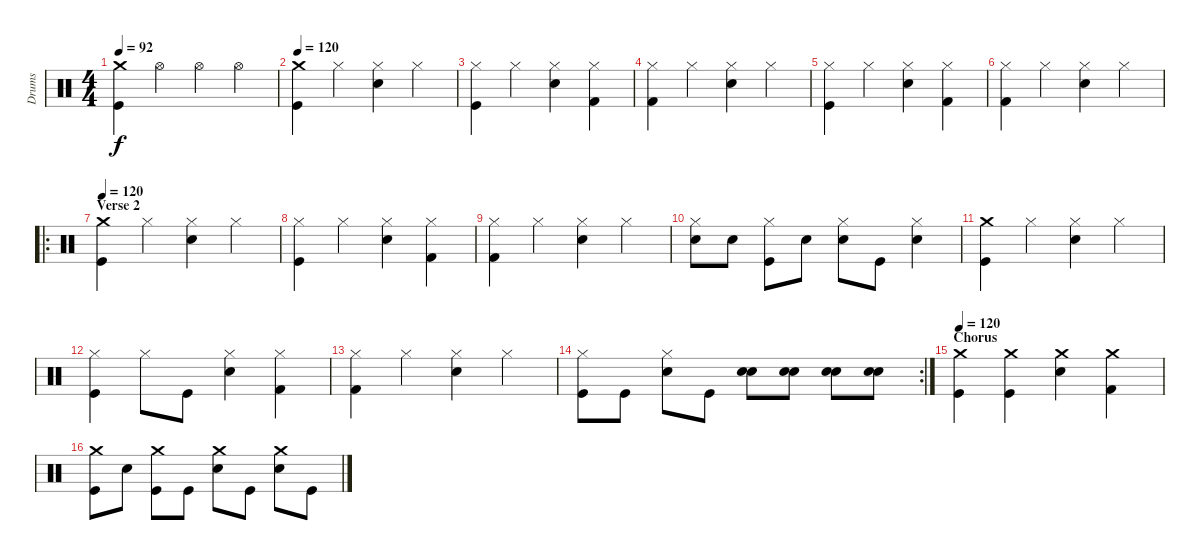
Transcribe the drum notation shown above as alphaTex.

\track ("Drums" "Drums") {instrument percussion}
\staff {score}
\articulation defaults
\ts (4 4)
\tempo 92
\clef neutral
\ks c
("Crash medium (hit)" "Kick (hit)").4{dy f} "Hi-Hat (open)".4 "Hi-Hat (open)".4 "Hi-Hat (open)".4 |
\tempo 120
("Crash medium (hit)" "Kick (hit)").4 "Hi-Hat (closed)".4 ("Hi-Hat (closed)" "Electric Snare (hit)").4 "Hi-Hat (closed)".4 |
("Hi-Hat (closed)" "Kick (hit)").4 "Hi-Hat (closed)".4 ("Hi-Hat (closed)" "Electric Snare (hit)").4 ("Hi-Hat (closed)" "Kick (hit) 2").4 |
("Hi-Hat (closed)" "Kick (hit) 2").4 "Hi-Hat (closed)".4 ("Hi-Hat (closed)" "Electric Snare (hit)").4 "Hi-Hat (closed)".4 |
("Hi-Hat (closed)" "Kick (hit)").4 "Hi-Hat (closed)".4 ("Hi-Hat (closed)" "Electric Snare (hit)").4 ("Hi-Hat (closed)" "Kick (hit) 2").4 |
("Hi-Hat (closed)" "Kick (hit) 2").4 "Hi-Hat (closed)".4 ("Hi-Hat (closed)" "Electric Snare (hit)").4 "Hi-Hat (closed)".4 |
\ro
\section ("" "Verse 2")
\tempo 120
("Crash medium (hit)" "Kick (hit)").4 "Hi-Hat (closed)".4 ("Hi-Hat (closed)" "Electric Snare (hit)").4 "Hi-Hat (closed)".4 |
("Hi-Hat (closed)" "Kick (hit)").4 "Hi-Hat (closed)".4 ("Hi-Hat (closed)" "Electric Snare (hit)").4 ("Hi-Hat (closed)" "Kick (hit) 2").4 |
("Hi-Hat (closed)" "Kick (hit) 2").4 "Hi-Hat (closed)".4 ("Hi-Hat (closed)" "Electric Snare (hit)").4 "Hi-Hat (closed)".4 |
("Hi-Hat (closed)" "Electric Snare (hit)").8 "Electric Snare (hit)".8 ("Hi-Hat (closed)" "Kick (hit)").8 "Electric Snare (hit)".8 ("Hi-Hat (closed)" "Electric Snare (hit)").8 "Kick (hit)".8 ("Hi-Hat (closed)" "Electric Snare (hit)").4 |
("Crash medium (hit)" "Kick (hit)").4 "Hi-Hat (closed)".4 ("Hi-Hat (closed)" "Electric Snare (hit)").4 "Hi-Hat (closed)".4 |
("Hi-Hat (closed)" "Kick (hit)").4 "Hi-Hat (closed)".8 "Kick (hit)".8 ("Hi-Hat (closed)" "Electric Snare (hit)").4 ("Hi-Hat (closed)" "Kick (hit) 2").4 |
("Hi-Hat (closed)" "Kick (hit) 2").4 "Hi-Hat (closed)".4 ("Hi-Hat (closed)" "Electric Snare (hit)").4 "Hi-Hat (closed)".4 |
\rc 2
("Hi-Hat (closed)" "Kick (hit)").8 "Kick (hit)".8 ("Hi-Hat (closed)" "Electric Snare (hit)").8 "Kick (hit)".8 ("Electric Snare (hit)" "Electric Snare (hit)").8 ("Electric Snare (hit)" "Electric Snare (hit)").8 ("Electric Snare (hit)" "Electric Snare (hit)").8 ("Electric Snare (hit)" "Electric Snare (hit)").8 |
\section ("" "Chorus")
\tempo 120
("Crash medium (hit)" "Kick (hit)").4 ("Crash medium (hit)" "Kick (hit)").4 ("Crash medium (hit)" "Electric Snare (hit)").4 ("Crash medium (hit)" "Kick (hit) 2").4 |
("Crash medium (hit)" "Kick (hit)").8 "Electric Snare (hit)".8 ("Crash medium (hit)" "Kick (hit)").8 "Kick (hit)".8 ("Crash medium (hit)" "Electric Snare (hit)").8 "Kick (hit)".8 ("Crash medium (hit)" "Electric Snare (hit)").8 "Kick (hit)".8
